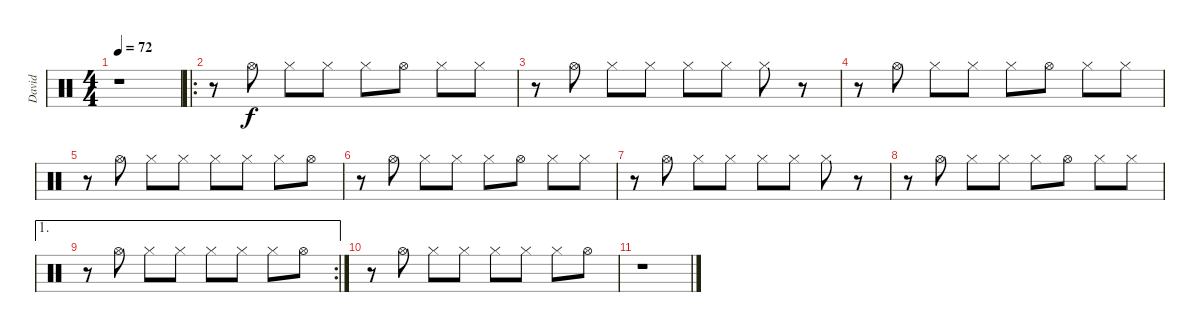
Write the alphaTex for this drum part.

\track ("David" "David") {instrument percussion}
\staff {score}
\articulation defaults
\ts (4 4)
\tempo 72
\clef neutral
\ks c
r.1{dy f} |
\ro
r.8 "Hi-Hat (open)".8 "Hi-Hat (closed)".8 "Hi-Hat (closed)".8 "Hi-Hat (closed)".8 "Hi-Hat (open)".8 "Hi-Hat (closed)".8 "Hi-Hat (closed)".8 |
r.8 "Hi-Hat (open)".8 "Hi-Hat (closed)".8 "Hi-Hat (closed)".8 "Hi-Hat (closed)".8 "Hi-Hat (closed)".8 "Hi-Hat (closed)".8 r.8 |
r.8 "Hi-Hat (open)".8 "Hi-Hat (closed)".8 "Hi-Hat (closed)".8 "Hi-Hat (closed)".8 "Hi-Hat (open)".8 "Hi-Hat (closed)".8 "Hi-Hat (closed)".8 |
r.8 "Hi-Hat (open)".8 "Hi-Hat (closed)".8 "Hi-Hat (closed)".8 "Hi-Hat (closed)".8 "Hi-Hat (closed)".8 "Hi-Hat (closed)".8 "Hi-Hat (open)".8 |
r.8 "Hi-Hat (open)".8 "Hi-Hat (closed)".8 "Hi-Hat (closed)".8 "Hi-Hat (closed)".8 "Hi-Hat (open)".8 "Hi-Hat (closed)".8 "Hi-Hat (closed)".8 |
r.8 "Hi-Hat (open)".8 "Hi-Hat (closed)".8 "Hi-Hat (closed)".8 "Hi-Hat (closed)".8 "Hi-Hat (closed)".8 "Hi-Hat (closed)".8 r.8 |
r.8 "Hi-Hat (open)".8 "Hi-Hat (closed)".8 "Hi-Hat (closed)".8 "Hi-Hat (closed)".8 "Hi-Hat (open)".8 "Hi-Hat (closed)".8 "Hi-Hat (closed)".8 |
\ae 1
\rc 2
r.8 "Hi-Hat (open)".8 "Hi-Hat (closed)".8 "Hi-Hat (closed)".8 "Hi-Hat (closed)".8 "Hi-Hat (closed)".8 "Hi-Hat (closed)".8 "Hi-Hat (open)".8 |
r.8 "Hi-Hat (open)".8 "Hi-Hat (closed)".8 "Hi-Hat (closed)".8 "Hi-Hat (closed)".8 "Hi-Hat (closed)".8 "Hi-Hat (closed)".8 "Hi-Hat (open)".8 |
r.1
